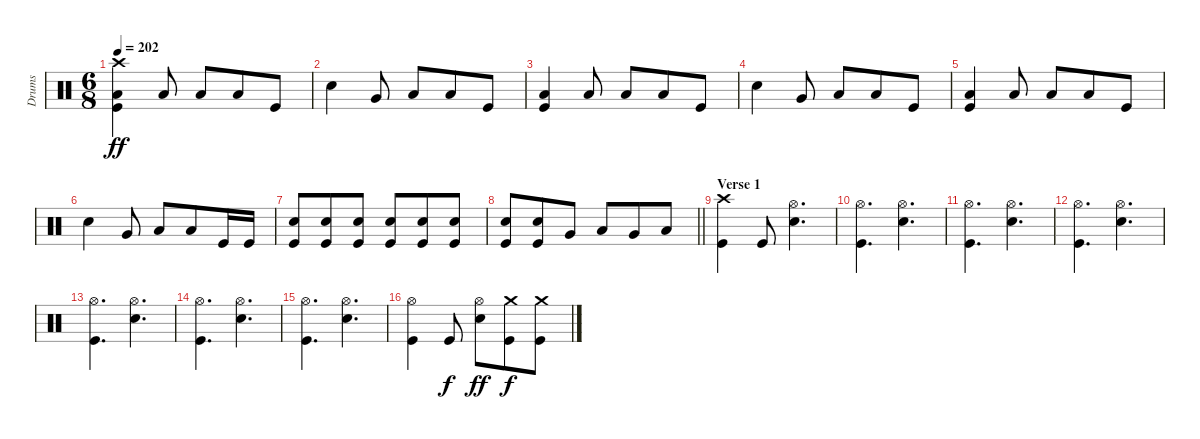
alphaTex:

\track ("Drums" "Drums") {instrument percussion}
\staff {score}
\articulation defaults
\ts (6 8)
\tempo 202
\clef neutral
\ks c
("Crash high (hit)" "Low Floor Tom (hit)" "Kick (hit)").4{dy ff} "Low Floor Tom (hit)".8 "Low Tom (hit)".8 "Low Floor Tom (hit)".8 "Kick (hit)".8 |
"Electric Snare (hit)".4 "Very Low Tom (hit)".8 "Low Tom (hit)".8 "Low Floor Tom (hit)".8 "Kick (hit)".8 |
("Low Floor Tom (hit)" "Kick (hit)").4 "Low Floor Tom (hit)".8 "Low Tom (hit)".8 "Low Floor Tom (hit)".8 "Kick (hit)".8 |
"Electric Snare (hit)".4 "Very Low Tom (hit)".8 "Low Tom (hit)".8 "Low Floor Tom (hit)".8 "Kick (hit)".8 |
("Low Floor Tom (hit)" "Kick (hit)").4 "Low Floor Tom (hit)".8 "Low Tom (hit)".8 "Low Floor Tom (hit)".8 "Kick (hit)".8 |
"Electric Snare (hit)".4 "Very Low Tom (hit)".8 "Low Tom (hit)".8 "Low Floor Tom (hit)".8 "Kick (hit)".16 "Kick (hit)".16 |
("Electric Snare (hit)" "Kick (hit)").8 ("Electric Snare (hit)" "Kick (hit)").8 ("Electric Snare (hit)" "Kick (hit)").8 ("Electric Snare (hit)" "Kick (hit)").8 ("Electric Snare (hit)" "Kick (hit)").8 ("Electric Snare (hit)" "Kick (hit)").8 |
\barLineRight lightlight
("Electric Snare (hit)" "Kick (hit)").8 ("Electric Snare (hit)" "Kick (hit)").8 "Very Low Tom (hit)".8 "Low Tom (hit)".8 "Very Low Tom (hit)".8 "Low Floor Tom (hit)".8 |
\section ("" "Verse 1")
("Crash high (hit)" "Kick (hit)").4 "Kick (hit)".8 ("Hi-Hat (open)" "Electric Snare (hit)").4{d} |
("Hi-Hat (open)" "Kick (hit)").4{d} ("Hi-Hat (open)" "Electric Snare (hit)").4{d} |
("Hi-Hat (open)" "Kick (hit)").4{d} ("Hi-Hat (open)" "Electric Snare (hit)").4{d} |
("Hi-Hat (open)" "Kick (hit)").4{d} ("Hi-Hat (open)" "Electric Snare (hit)").4{d} |
("Hi-Hat (open)" "Kick (hit)").4{d} ("Hi-Hat (open)" "Electric Snare (hit)").4{d} |
("Hi-Hat (open)" "Kick (hit)").4{d} ("Hi-Hat (open)" "Electric Snare (hit)").4{d} |
("Hi-Hat (open)" "Kick (hit)").4{d} ("Hi-Hat (open)" "Electric Snare (hit)").4{d} |
("Hi-Hat (open)" "Kick (hit)").4 "Kick (hit)".8{dy f} ("Hi-Hat (open)" "Electric Snare (hit)").8{dy ff} ("Crash medium (hit)" "Kick (hit)").8{dy f} ("Crash medium (hit)" "Kick (hit)").8
